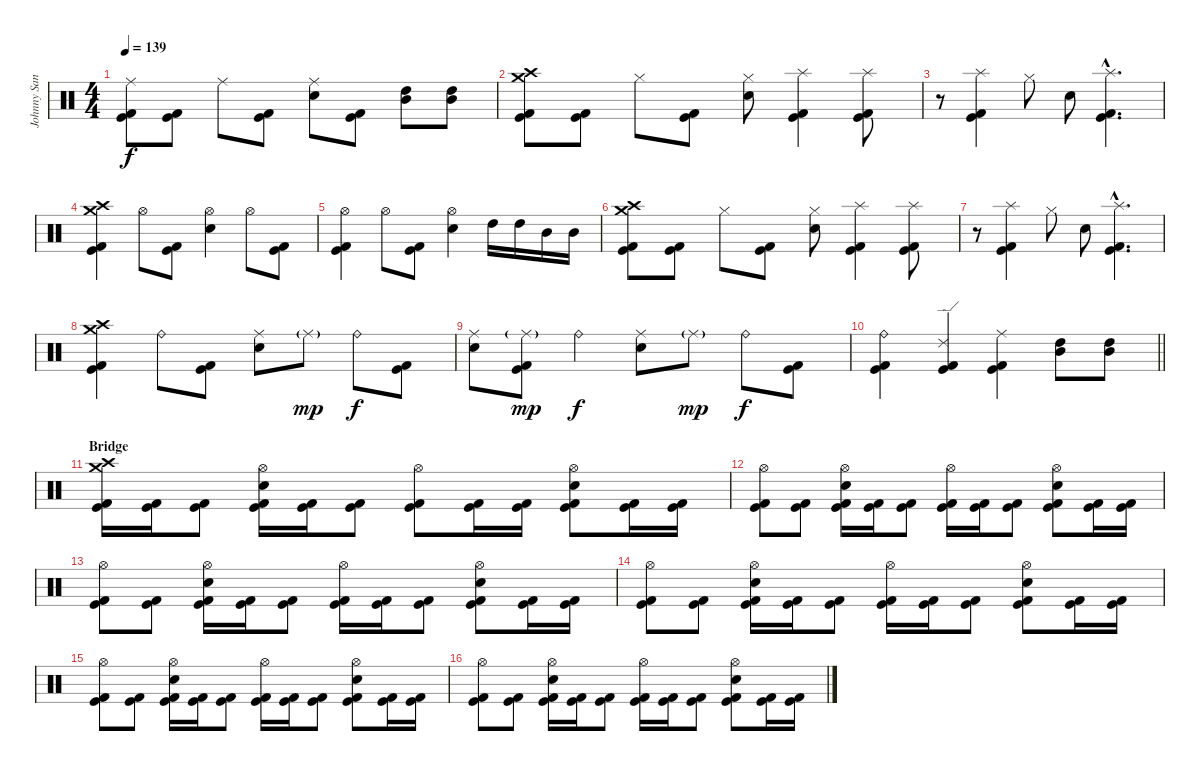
\track ("Johnny Sandin" "Johnny San") {instrument percussion}
\staff {score}
\articulation defaults
\ts (4 4)
\tempo 139
\clef neutral
\ks c
("Ride (middle)" "Kick (hit)" "Kick (hit) 2").8{dy f} ("Kick (hit) 2" "Kick (hit)").8 "Ride (middle)".8 ("Kick (hit)" "Kick (hit) 2").8 ("Ride (middle)" "Snare (hit) 2").8 ("Kick (hit)" "Kick (hit) 2").8 ("Mid Tom (hit)" "High Tom (hit)").8 ("Mid Tom (hit)" "High Tom (hit)").8 |
("Crash medium (hit)" "Crash high (hit)" "Kick (hit) 2" "Kick (hit)").8 ("Kick (hit) 2" "Kick (hit)").8 "Hi-Hat (closed)".8 ("Kick (hit)" "Kick (hit) 2").8 ("Hi-Hat (closed)" "Snare (hit) 2").8 ("Splash (hit)" "Kick (hit) 2" "Kick (hit)").4 ("Splash (hit)" "Kick (hit) 2" "Kick (hit)").8 |
r.8 ("Splash (hit)" "Kick (hit) 2" "Kick (hit)").4 "Hi-Hat (closed)".8 "Snare (hit) 2".8 ("Splash (hit)"{hac} "Kick (hit) 2"{hac} "Kick (hit)"{hac}).4{d} |
("Crash medium (hit)" "Crash high (hit)" "Kick (hit) 2" "Kick (hit)").4 "Hi-Hat (open)".8 ("Kick (hit) 2" "Kick (hit)").8 ("Hi-Hat (open)" "Snare (hit) 2").4 "Hi-Hat (open)".8 ("Kick (hit)" "Kick (hit) 2").8 |
("Hi-Hat (open)" "Kick (hit) 2" "Kick (hit)").4 "Hi-Hat (open)".8 ("Kick (hit) 2" "Kick (hit)").8 ("Hi-Hat (open)" "Snare (hit) 2").4 "High Tom (hit)".16 "High Tom (hit)".16 "Mid Tom (hit)".16 "Mid Tom (hit)".16 |
("Crash medium (hit)" "Crash high (hit)" "Kick (hit) 2" "Kick (hit)").8 ("Kick (hit) 2" "Kick (hit)").8 "Hi-Hat (closed)".8 ("Kick (hit)" "Kick (hit) 2").8 ("Hi-Hat (closed)" "Snare (hit) 2").8 ("Splash (hit)" "Kick (hit) 2" "Kick (hit)").4 ("Splash (hit)" "Kick (hit) 2" "Kick (hit)").8 |
r.8 ("Splash (hit)" "Kick (hit) 2" "Kick (hit)").4 "Hi-Hat (closed)".8 "Snare (hit) 2".8 ("Splash (hit)"{hac} "Kick (hit) 2"{hac} "Kick (hit)"{hac}).4{d} |
("Crash medium (hit)" "Crash high (hit)" "Kick (hit) 2" "Kick (hit)").4 "Ride (bell)".8 ("Kick (hit) 2" "Kick (hit)").8 ("Ride (middle)" "Snare (hit) 2").8 "Ride (middle)"{g}.8{dy mp} "Ride (bell)".8{dy f} ("Kick (hit) 2" "Kick (hit)").8 |
("Ride (middle)" "Snare (hit) 2").8 ("Ride (middle)"{g} "Kick (hit) 2" "Kick (hit)").8{dy mp} "Ride (bell)".4{dy f} ("Ride (middle)" "Snare (hit) 2").8 "Ride (middle)"{g}.8{dy mp} "Ride (bell)".8{dy f} ("Kick (hit)" "Kick (hit) 2").8 |
\barLineRight lightlight
("Ride (bell)" "Kick (hit) 2" "Kick (hit)").4 ("Ride (edge) 2" "Kick (hit) 2" "Kick (hit)").4 ("Ride (middle)" "Kick (hit)" "Kick (hit) 2").4 ("Mid Tom (hit)" "High Tom (hit)").8 ("Mid Tom (hit)" "High Tom (hit)").8 |
\section ("" "Bridge")
("Crash medium (hit)" "Crash high (hit)" "Kick (hit) 2" "Kick (hit)").16 ("Kick (hit) 2" "Kick (hit)").16 ("Kick (hit) 2" "Kick (hit)").8 ("Hi-Hat (open)" "Snare (hit) 2" "Kick (hit) 2" "Kick (hit)").16 ("Kick (hit) 2" "Kick (hit)").16 ("Kick (hit) 2" "Kick (hit)").8 ("Hi-Hat (open)" "Kick (hit) 2" "Kick (hit)").8 ("Kick (hit) 2" "Kick (hit)").16 ("Kick (hit) 2" "Kick (hit)").16 ("Hi-Hat (open)" "Snare (hit) 2" "Kick (hit) 2" "Kick (hit)").8 ("Kick (hit) 2" "Kick (hit)").16 ("Kick (hit) 2" "Kick (hit)").16 |
("Hi-Hat (open)" "Kick (hit) 2" "Kick (hit)").8 ("Kick (hit) 2" "Kick (hit)").8 ("Hi-Hat (open)" "Snare (hit) 2" "Kick (hit) 2" "Kick (hit)").16 ("Kick (hit) 2" "Kick (hit)").16 ("Kick (hit) 2" "Kick (hit)").8 ("Hi-Hat (open)" "Kick (hit) 2" "Kick (hit)").16 ("Kick (hit) 2" "Kick (hit)").16 ("Kick (hit) 2" "Kick (hit)").8 ("Hi-Hat (open)" "Snare (hit) 2" "Kick (hit) 2" "Kick (hit)").8 ("Kick (hit) 2" "Kick (hit)").16 ("Kick (hit) 2" "Kick (hit)").16 |
("Hi-Hat (open)" "Kick (hit) 2" "Kick (hit)").8 ("Kick (hit) 2" "Kick (hit)").8 ("Hi-Hat (open)" "Snare (hit) 2" "Kick (hit) 2" "Kick (hit)").16 ("Kick (hit) 2" "Kick (hit)").16 ("Kick (hit) 2" "Kick (hit)").8 ("Hi-Hat (open)" "Kick (hit) 2" "Kick (hit)").16 ("Kick (hit) 2" "Kick (hit)").16 ("Kick (hit) 2" "Kick (hit)").8 ("Hi-Hat (open)" "Snare (hit) 2" "Kick (hit) 2" "Kick (hit)").8 ("Kick (hit) 2" "Kick (hit)").16 ("Kick (hit) 2" "Kick (hit)").16 |
("Hi-Hat (open)" "Kick (hit) 2" "Kick (hit)").8 ("Kick (hit) 2" "Kick (hit)").8 ("Hi-Hat (open)" "Snare (hit) 2" "Kick (hit) 2" "Kick (hit)").16 ("Kick (hit) 2" "Kick (hit)").16 ("Kick (hit) 2" "Kick (hit)").8 ("Hi-Hat (open)" "Kick (hit) 2" "Kick (hit)").16 ("Kick (hit) 2" "Kick (hit)").16 ("Kick (hit) 2" "Kick (hit)").8 ("Hi-Hat (open)" "Snare (hit) 2" "Kick (hit) 2" "Kick (hit)").8 ("Kick (hit) 2" "Kick (hit)").16 ("Kick (hit) 2" "Kick (hit)").16 |
("Hi-Hat (open)" "Kick (hit) 2" "Kick (hit)").8 ("Kick (hit) 2" "Kick (hit)").8 ("Hi-Hat (open)" "Snare (hit) 2" "Kick (hit) 2" "Kick (hit)").16 ("Kick (hit) 2" "Kick (hit)").16 ("Kick (hit) 2" "Kick (hit)").8 ("Hi-Hat (open)" "Kick (hit) 2" "Kick (hit)").16 ("Kick (hit) 2" "Kick (hit)").16 ("Kick (hit) 2" "Kick (hit)").8 ("Hi-Hat (open)" "Snare (hit) 2" "Kick (hit) 2" "Kick (hit)").8 ("Kick (hit) 2" "Kick (hit)").16 ("Kick (hit) 2" "Kick (hit)").16 |
("Hi-Hat (open)" "Kick (hit) 2" "Kick (hit)").8 ("Kick (hit) 2" "Kick (hit)").8 ("Hi-Hat (open)" "Snare (hit) 2" "Kick (hit) 2" "Kick (hit)").16 ("Kick (hit) 2" "Kick (hit)").16 ("Kick (hit) 2" "Kick (hit)").8 ("Hi-Hat (open)" "Kick (hit) 2" "Kick (hit)").16 ("Kick (hit) 2" "Kick (hit)").16 ("Kick (hit) 2" "Kick (hit)").8 ("Hi-Hat (open)" "Snare (hit) 2" "Kick (hit) 2" "Kick (hit)").8 ("Kick (hit) 2" "Kick (hit)").16 ("Kick (hit) 2" "Kick (hit)").16
